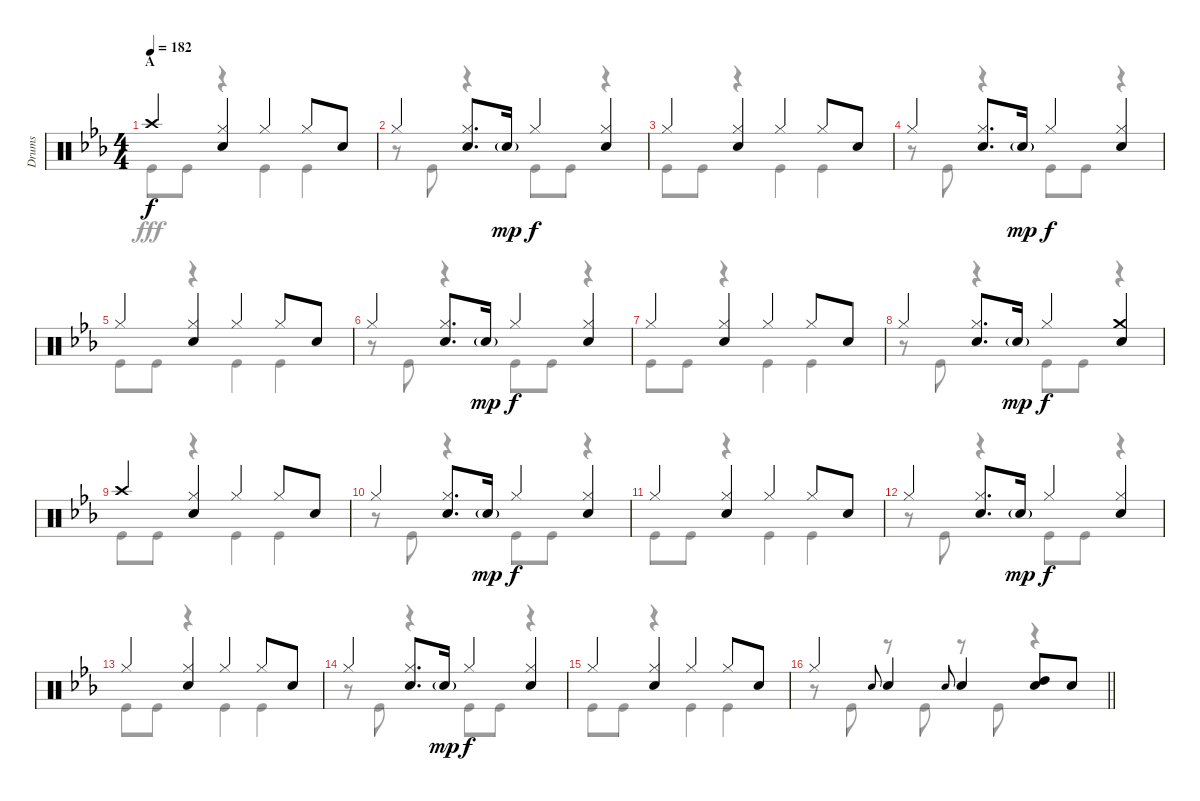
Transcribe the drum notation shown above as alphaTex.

\track ("Drums" "Drums") {instrument percussion}
\staff {score}
\articulation defaults
\voice
\ts (4 4)
\section ("" "A")
\tempo 182
\clef neutral
\ks eb "Crash high (hit)".4{dy f}
("Hi-Hat (closed)" "Snare (hit) 2").4 "Hi-Hat (closed)".4 "Hi-Hat (closed)".8 "Snare (hit) 2".8 |
"Hi-Hat (closed)".4 ("Hi-Hat (closed)" "Snare (hit) 2").8{d} "Snare (hit) 2"{g}.16{dy mp} "Hi-Hat (closed)".4{dy f} ("Hi-Hat (closed)" "Snare (hit) 2").4 |
"Hi-Hat (closed)".4 ("Hi-Hat (closed)" "Snare (hit) 2").4 "Hi-Hat (closed)".4 "Hi-Hat (closed)".8 "Snare (hit) 2".8 |
"Hi-Hat (closed)".4 ("Hi-Hat (closed)" "Snare (hit) 2").8{d} "Snare (hit) 2"{g}.16{dy mp} "Hi-Hat (closed)".4{dy f} ("Hi-Hat (closed)" "Snare (hit) 2").4 |
"Hi-Hat (closed)".4 ("Hi-Hat (closed)" "Snare (hit) 2").4 "Hi-Hat (closed)".4 "Hi-Hat (closed)".8 "Snare (hit) 2".8 |
"Hi-Hat (closed)".4 ("Hi-Hat (closed)" "Snare (hit) 2").8{d} "Snare (hit) 2"{g}.16{dy mp} "Hi-Hat (closed)".4{dy f} ("Hi-Hat (closed)" "Snare (hit) 2").4 |
"Hi-Hat (closed)".4 ("Hi-Hat (closed)" "Snare (hit) 2").4 "Hi-Hat (closed)".4 "Hi-Hat (closed)".8 "Snare (hit) 2".8 |
"Hi-Hat (closed)".4 ("Hi-Hat (closed)" "Snare (hit) 2").8{d} "Snare (hit) 2"{g}.16{dy mp} "Hi-Hat (closed)".4{dy f} ("Crash medium (hit)" "Snare (hit) 2").4 |
"Crash high (hit)".4 ("Hi-Hat (closed)" "Snare (hit) 2").4 "Hi-Hat (closed)".4 "Hi-Hat (closed)".8 "Snare (hit) 2".8 |
"Hi-Hat (closed)".4 ("Hi-Hat (closed)" "Snare (hit) 2").8{d} "Snare (hit) 2"{g}.16{dy mp} "Hi-Hat (closed)".4{dy f} ("Hi-Hat (closed)" "Snare (hit) 2").4 |
"Hi-Hat (closed)".4 ("Hi-Hat (closed)" "Snare (hit) 2").4 "Hi-Hat (closed)".4 "Hi-Hat (closed)".8 "Snare (hit) 2".8 |
"Hi-Hat (closed)".4 ("Hi-Hat (closed)" "Snare (hit) 2").8{d} "Snare (hit) 2"{g}.16{dy mp} "Hi-Hat (closed)".4{dy f} ("Hi-Hat (closed)" "Snare (hit) 2").4 |
"Hi-Hat (closed)".4 ("Hi-Hat (closed)" "Snare (hit) 2").4 "Hi-Hat (closed)".4 "Hi-Hat (closed)".8 "Snare (hit) 2".8 |
"Hi-Hat (closed)".4 ("Hi-Hat (closed)" "Snare (hit) 2").8{d} "Snare (hit) 2"{g}.16{dy mp} "Hi-Hat (closed)".4{dy f} ("Hi-Hat (closed)" "Snare (hit) 2").4 |
"Hi-Hat (closed)".4 ("Hi-Hat (closed)" "Snare (hit) 2").4 "Hi-Hat (closed)".4 "Hi-Hat (closed)".8 "Snare (hit) 2".8 |
\barLineRight lightlight "Hi-Hat (closed)".4 "Snare (hit) 2".8{gr onbeat} "Snare (hit) 2".4 "Snare (hit) 2".8{gr onbeat} "Snare (hit) 2".4
("High Tom (hit)" "Snare (hit) 2").8 "Snare (hit) 2".8
\voice
\clef neutral
\ottava regular
\simile none
\ks eb "Kick (hit)".8{dy fff} "Kick (hit)".8
r.4 "Kick (hit)".4 "Kick (hit)".4 |
r.8 "Kick (hit)".8 r.4 "Kick (hit)".8 "Kick (hit)".8 r.4 |
"Kick (hit)".8 "Kick (hit)".8 r.4 "Kick (hit)".4 "Kick (hit)".4 |
r.8 "Kick (hit)".8 r.4 "Kick (hit)".8 "Kick (hit)".8 r.4 |
"Kick (hit)".8 "Kick (hit)".8 r.4 "Kick (hit)".4 "Kick (hit)".4 |
r.8 "Kick (hit)".8 r.4 "Kick (hit)".8 "Kick (hit)".8 r.4 |
"Kick (hit)".8 "Kick (hit)".8 r.4 "Kick (hit)".4 "Kick (hit)".4 |
r.8 "Kick (hit)".8 r.4 "Kick (hit)".8 "Kick (hit)".8 r.4 |
"Kick (hit)".8 "Kick (hit)".8 r.4 "Kick (hit)".4 "Kick (hit)".4 |
r.8 "Kick (hit)".8 r.4 "Kick (hit)".8 "Kick (hit)".8 r.4 |
"Kick (hit)".8 "Kick (hit)".8 r.4 "Kick (hit)".4 "Kick (hit)".4 |
r.8 "Kick (hit)".8 r.4 "Kick (hit)".8 "Kick (hit)".8 r.4 |
"Kick (hit)".8 "Kick (hit)".8 r.4 "Kick (hit)".4 "Kick (hit)".4 |
r.8 "Kick (hit)".8 r.4 "Kick (hit)".8 "Kick (hit)".8 r.4 |
"Kick (hit)".8 "Kick (hit)".8 r.4 "Kick (hit)".4 "Kick (hit)".4 |
\barLineRight lightlight
r.8 "Kick (hit)".8 r.8 "Kick (hit)".8 r.8 "Kick (hit)".8 r.4
